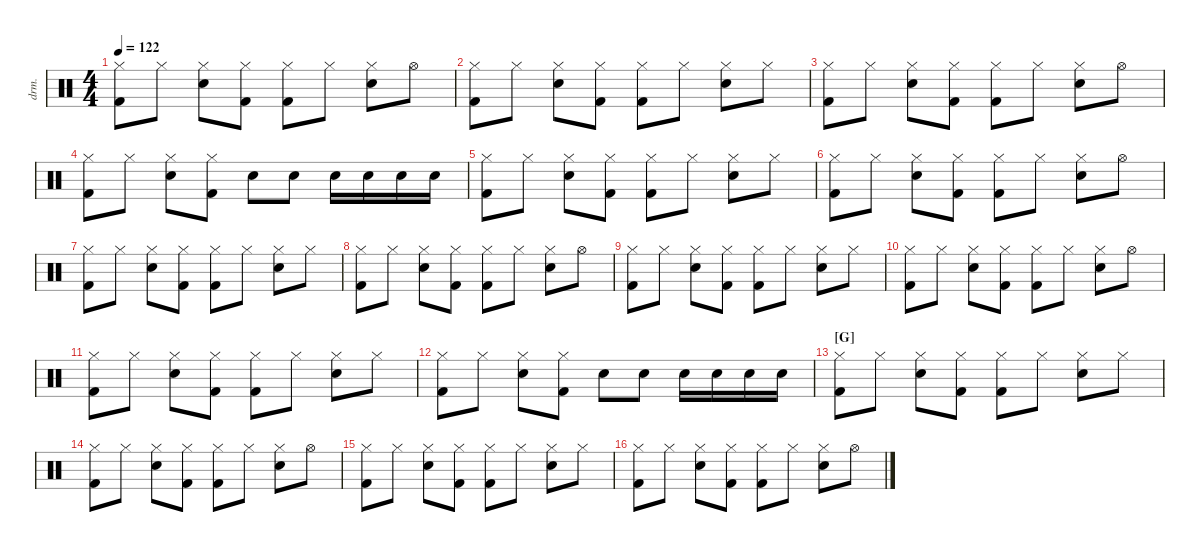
\defaultSystemsLayout 4
\hideDynamics
\bracketExtendMode nobrackets
\track ("Drumkit" "drm.") {defaultSystemsLayout 4 instrument percussion}
\staff {score}
\articulation defaults
\ts (4 4)
\tempo 122
\clef neutral
\ks c
("Hi-Hat (closed)" "Kick (hit) 2").8{dy f} "Hi-Hat (closed)".8 ("Hi-Hat (closed)" "Snare (hit) 2").8 ("Hi-Hat (closed)" "Kick (hit) 2").8 ("Hi-Hat (closed)" "Kick (hit) 2").8 "Hi-Hat (closed)".8 ("Hi-Hat (closed)" "Snare (hit) 2").8 "Hi-Hat (open)".8 |
("Hi-Hat (closed)" "Kick (hit) 2").8 "Hi-Hat (closed)".8 ("Hi-Hat (closed)" "Snare (hit) 2").8 ("Hi-Hat (closed)" "Kick (hit) 2").8 ("Hi-Hat (closed)" "Kick (hit) 2").8 "Hi-Hat (closed)".8 ("Hi-Hat (closed)" "Snare (hit) 2").8 "Hi-Hat (closed)".8 |
("Hi-Hat (closed)" "Kick (hit) 2").8 "Hi-Hat (closed)".8 ("Hi-Hat (closed)" "Snare (hit) 2").8 ("Hi-Hat (closed)" "Kick (hit) 2").8 ("Hi-Hat (closed)" "Kick (hit) 2").8 "Hi-Hat (closed)".8 ("Hi-Hat (closed)" "Snare (hit) 2").8 "Hi-Hat (open)".8 |
("Hi-Hat (closed)" "Kick (hit) 2").8 "Hi-Hat (closed)".8 ("Hi-Hat (closed)" "Snare (hit) 2").8 ("Hi-Hat (closed)" "Kick (hit) 2").8 "Snare (hit) 2".8 "Snare (hit) 2".8 "Snare (hit) 2".16 "Snare (hit) 2".16 "Snare (hit) 2".16 "Snare (hit) 2".16 |
("Hi-Hat (closed)" "Kick (hit) 2").8 "Hi-Hat (closed)".8 ("Hi-Hat (closed)" "Snare (hit) 2").8 ("Hi-Hat (closed)" "Kick (hit) 2").8 ("Hi-Hat (closed)" "Kick (hit) 2").8 "Hi-Hat (closed)".8 ("Hi-Hat (closed)" "Snare (hit) 2").8 "Hi-Hat (closed)".8 |
("Hi-Hat (closed)" "Kick (hit) 2").8 "Hi-Hat (closed)".8 ("Hi-Hat (closed)" "Snare (hit) 2").8 ("Hi-Hat (closed)" "Kick (hit) 2").8 ("Hi-Hat (closed)" "Kick (hit) 2").8 "Hi-Hat (closed)".8 ("Hi-Hat (closed)" "Snare (hit) 2").8 "Hi-Hat (open)".8 |
("Hi-Hat (closed)" "Kick (hit) 2").8 "Hi-Hat (closed)".8 ("Hi-Hat (closed)" "Snare (hit) 2").8 ("Hi-Hat (closed)" "Kick (hit) 2").8 ("Hi-Hat (closed)" "Kick (hit) 2").8 "Hi-Hat (closed)".8 ("Hi-Hat (closed)" "Snare (hit) 2").8 "Hi-Hat (closed)".8 |
("Hi-Hat (closed)" "Kick (hit) 2").8 "Hi-Hat (closed)".8 ("Hi-Hat (closed)" "Snare (hit) 2").8 ("Hi-Hat (closed)" "Kick (hit) 2").8 ("Hi-Hat (closed)" "Kick (hit) 2").8 "Hi-Hat (closed)".8 ("Hi-Hat (closed)" "Snare (hit) 2").8 "Hi-Hat (open)".8 |
("Hi-Hat (closed)" "Kick (hit) 2").8 "Hi-Hat (closed)".8 ("Hi-Hat (closed)" "Snare (hit) 2").8 ("Hi-Hat (closed)" "Kick (hit) 2").8 ("Hi-Hat (closed)" "Kick (hit) 2").8 "Hi-Hat (closed)".8 ("Hi-Hat (closed)" "Snare (hit) 2").8 "Hi-Hat (closed)".8 |
("Hi-Hat (closed)" "Kick (hit) 2").8 "Hi-Hat (closed)".8 ("Hi-Hat (closed)" "Snare (hit) 2").8 ("Hi-Hat (closed)" "Kick (hit) 2").8 ("Hi-Hat (closed)" "Kick (hit) 2").8 "Hi-Hat (closed)".8 ("Hi-Hat (closed)" "Snare (hit) 2").8 "Hi-Hat (open)".8 |
("Hi-Hat (closed)" "Kick (hit) 2").8 "Hi-Hat (closed)".8 ("Hi-Hat (closed)" "Snare (hit) 2").8 ("Hi-Hat (closed)" "Kick (hit) 2").8 ("Hi-Hat (closed)" "Kick (hit) 2").8 "Hi-Hat (closed)".8 ("Hi-Hat (closed)" "Snare (hit) 2").8 "Hi-Hat (closed)".8 |
("Hi-Hat (closed)" "Kick (hit) 2").8 "Hi-Hat (closed)".8 ("Hi-Hat (closed)" "Snare (hit) 2").8 ("Hi-Hat (closed)" "Kick (hit) 2").8 "Snare (hit) 2".8 "Snare (hit) 2".8 "Snare (hit) 2".16 "Snare (hit) 2".16 "Snare (hit) 2".16 "Snare (hit) 2".16 |
\section ("G" "")
("Hi-Hat (closed)" "Kick (hit) 2").8 "Hi-Hat (closed)".8 ("Hi-Hat (closed)" "Snare (hit) 2").8 ("Hi-Hat (closed)" "Kick (hit) 2").8 ("Hi-Hat (closed)" "Kick (hit) 2").8 "Hi-Hat (closed)".8 ("Hi-Hat (closed)" "Snare (hit) 2").8 "Hi-Hat (closed)".8 |
("Hi-Hat (closed)" "Kick (hit) 2").8 "Hi-Hat (closed)".8 ("Hi-Hat (closed)" "Snare (hit) 2").8 ("Hi-Hat (closed)" "Kick (hit) 2").8 ("Hi-Hat (closed)" "Kick (hit) 2").8 "Hi-Hat (closed)".8 ("Hi-Hat (closed)" "Snare (hit) 2").8 "Hi-Hat (open)".8 |
("Hi-Hat (closed)" "Kick (hit) 2").8 "Hi-Hat (closed)".8 ("Hi-Hat (closed)" "Snare (hit) 2").8 ("Hi-Hat (closed)" "Kick (hit) 2").8 ("Hi-Hat (closed)" "Kick (hit) 2").8 "Hi-Hat (closed)".8 ("Hi-Hat (closed)" "Snare (hit) 2").8 "Hi-Hat (closed)".8 |
("Hi-Hat (closed)" "Kick (hit) 2").8 "Hi-Hat (closed)".8 ("Hi-Hat (closed)" "Snare (hit) 2").8 ("Hi-Hat (closed)" "Kick (hit) 2").8 ("Hi-Hat (closed)" "Kick (hit) 2").8 "Hi-Hat (closed)".8 ("Hi-Hat (closed)" "Snare (hit) 2").8 "Hi-Hat (open)".8
